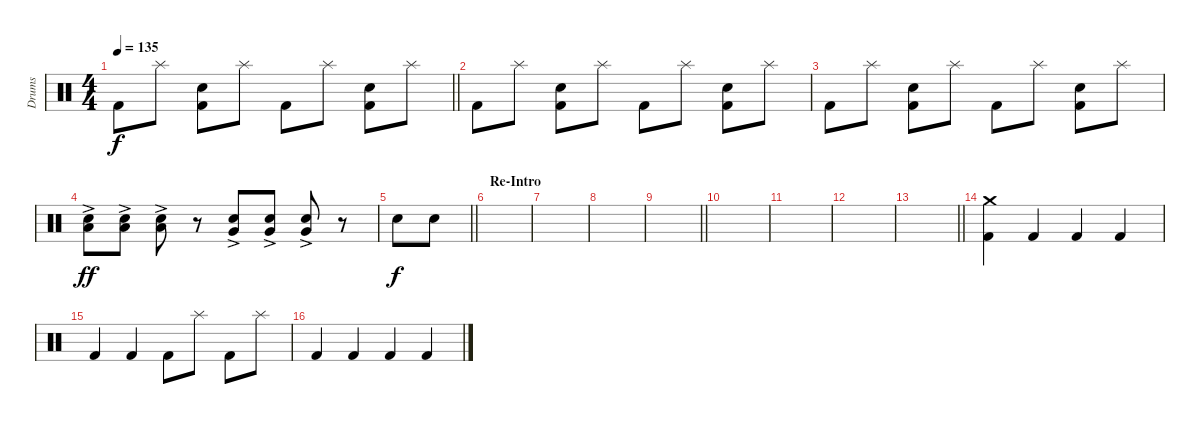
\track ("Drums" "Drums") {instrument percussion}
\staff {score}
\articulation defaults
\ts (4 4)
\tempo 135
\clef neutral
\barLineRight lightlight
\ks c "Kick (hit) 2".8{dy f} "Splash (hit)".8
("Kick (hit) 2" "Snare (hit) 2").8 "Splash (hit)".8 "Kick (hit) 2".8 "Splash (hit)".8 ("Kick (hit) 2" "Snare (hit) 2").8 "Splash (hit)".8 |
\section ("" "")
"Kick (hit) 2".8 "Splash (hit)".8 ("Kick (hit) 2" "Snare (hit) 2").8 "Splash (hit)".8 "Kick (hit) 2".8 "Splash (hit)".8 ("Kick (hit) 2" "Snare (hit) 2").8 "Splash (hit)".8 |
"Kick (hit) 2".8 "Splash (hit)".8 ("Kick (hit) 2" "Snare (hit) 2").8 "Splash (hit)".8 "Kick (hit) 2".8 "Splash (hit)".8 ("Kick (hit) 2" "Snare (hit) 2").8 "Splash (hit)".8 |
("Snare (hit) 2" "Low Tom (hit)"{ac}).8{dy ff} ("Snare (hit) 2" "Low Tom (hit)"{ac}).8 ("Snare (hit) 2" "Low Tom (hit)"{ac}).8 r.8 ("Snare (hit) 2" "Very Low Tom (hit)"{ac}).8 ("Snare (hit) 2" "Very Low Tom (hit)"{ac}).8 ("Snare (hit) 2" "Very Low Tom (hit)"{ac}).8 r.8 |
\barLineRight lightlight "Snare (hit) 2".8{dy f} "Snare (hit) 2".8
|
\section ("" "Re-Intro")
|
|
|
\barLineRight lightlight
|
\section ("" "")
|
|
|
\barLineRight lightlight
|
\section ("" "")
("Kick (hit) 2" "Crash medium (hit)").4 "Kick (hit) 2".4 "Kick (hit) 2".4 "Kick (hit) 2".4 |
"Kick (hit) 2".4 "Kick (hit) 2".4 "Kick (hit) 2".8 "Splash (hit)".8 "Kick (hit) 2".8 "Splash (hit)".8 |
"Kick (hit) 2".4 "Kick (hit) 2".4 "Kick (hit) 2".4 "Kick (hit) 2".4
